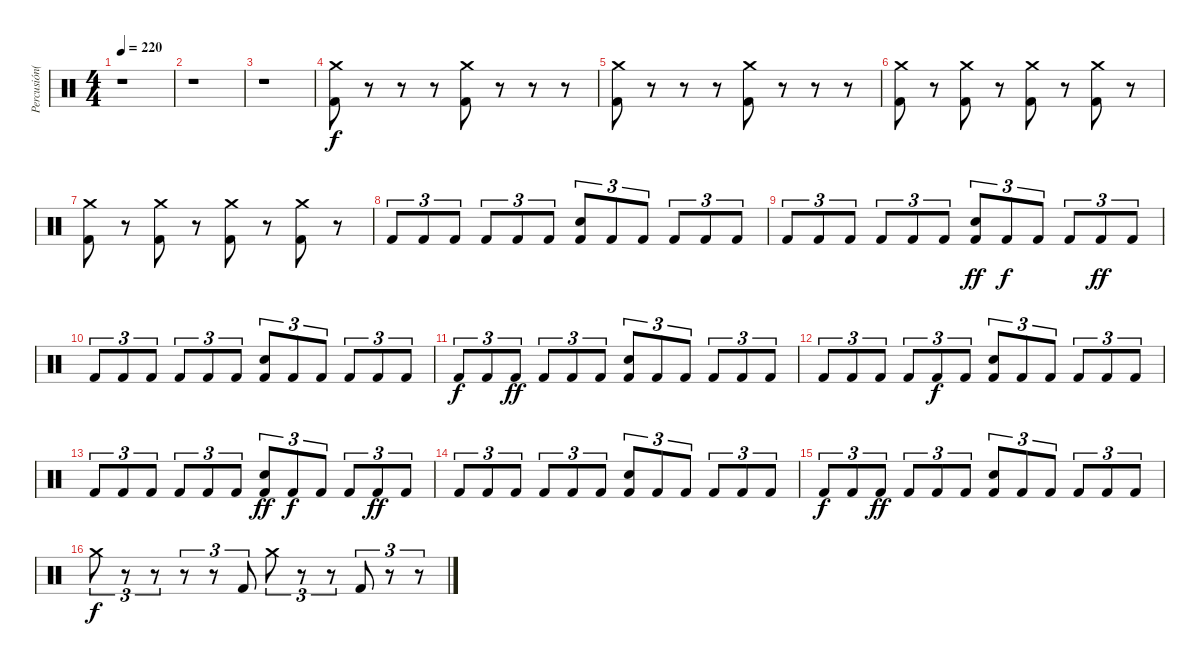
\track ("Percusión(Brett Powell)" "Percusión(") {instrument percussion}
\staff {score}
\articulation defaults
\ts (4 4)
\tempo 220
\clef neutral
\ks c
r.1{dy f} |
r.1 |
r.1 |
("Crash medium (hit)" "Kick (hit) 2").8 r.8 r.8 r.8 ("Crash medium (hit)" "Kick (hit) 2").8 r.8 r.8 r.8 |
("Crash medium (hit)" "Kick (hit) 2").8 r.8 r.8 r.8 ("Crash medium (hit)" "Kick (hit) 2").8 r.8 r.8 r.8 |
("Crash medium (hit)" "Kick (hit) 2").8 r.8 ("Crash medium (hit)" "Kick (hit) 2").8 r.8 ("Crash medium (hit)" "Kick (hit) 2").8 r.8 ("Crash medium (hit)" "Kick (hit) 2").8 r.8 |
("Crash medium (hit)" "Kick (hit) 2").8 r.8 ("Crash medium (hit)" "Kick (hit) 2").8 r.8 ("Crash medium (hit)" "Kick (hit) 2").8 r.8 ("Crash medium (hit)" "Kick (hit) 2").8 r.8 |
"Kick (hit) 2".8{tu (3 2)} "Kick (hit) 2".8{tu (3 2)} "Kick (hit) 2".8{tu (3 2)} "Kick (hit) 2".8{tu (3 2)} "Kick (hit) 2".8{tu (3 2)} "Kick (hit) 2".8{tu (3 2)} ("Electric Snare (hit)" "Kick (hit) 2").8{tu (3 2)} "Kick (hit) 2".8{tu (3 2)} "Kick (hit) 2".8{tu (3 2)} "Kick (hit) 2".8{tu (3 2)} "Kick (hit) 2".8{tu (3 2)} "Kick (hit) 2".8{tu (3 2)} |
"Kick (hit) 2".8{tu (3 2)} "Kick (hit) 2".8{tu (3 2)} "Kick (hit) 2".8{tu (3 2)} "Kick (hit) 2".8{tu (3 2)} "Kick (hit) 2".8{tu (3 2)} "Kick (hit) 2".8{tu (3 2)} ("Electric Snare (hit)" "Kick (hit) 2").8{tu (3 2) dy ff} "Kick (hit) 2".8{tu (3 2) dy f} "Kick (hit) 2".8{tu (3 2)} "Kick (hit) 2".8{tu (3 2)} "Kick (hit) 2".8{tu (3 2) dy ff} "Kick (hit) 2".8{tu (3 2)} |
"Kick (hit) 2".8{tu (3 2)} "Kick (hit) 2".8{tu (3 2)} "Kick (hit) 2".8{tu (3 2)} "Kick (hit) 2".8{tu (3 2)} "Kick (hit) 2".8{tu (3 2)} "Kick (hit) 2".8{tu (3 2)} ("Electric Snare (hit)" "Kick (hit) 2").8{tu (3 2)} "Kick (hit) 2".8{tu (3 2)} "Kick (hit) 2".8{tu (3 2)} "Kick (hit) 2".8{tu (3 2)} "Kick (hit) 2".8{tu (3 2)} "Kick (hit) 2".8{tu (3 2)} |
"Kick (hit) 2".8{tu (3 2) dy f} "Kick (hit) 2".8{tu (3 2)} "Kick (hit) 2".8{tu (3 2) dy ff} "Kick (hit) 2".8{tu (3 2)} "Kick (hit) 2".8{tu (3 2)} "Kick (hit) 2".8{tu (3 2)} ("Electric Snare (hit)" "Kick (hit) 2").8{tu (3 2)} "Kick (hit) 2".8{tu (3 2)} "Kick (hit) 2".8{tu (3 2)} "Kick (hit) 2".8{tu (3 2)} "Kick (hit) 2".8{tu (3 2)} "Kick (hit) 2".8{tu (3 2)} |
"Kick (hit) 2".8{tu (3 2)} "Kick (hit) 2".8{tu (3 2)} "Kick (hit) 2".8{tu (3 2)} "Kick (hit) 2".8{tu (3 2)} "Kick (hit) 2".8{tu (3 2) dy f} "Kick (hit) 2".8{tu (3 2)} ("Electric Snare (hit)" "Kick (hit) 2").8{tu (3 2)} "Kick (hit) 2".8{tu (3 2)} "Kick (hit) 2".8{tu (3 2)} "Kick (hit) 2".8{tu (3 2)} "Kick (hit) 2".8{tu (3 2)} "Kick (hit) 2".8{tu (3 2)} |
"Kick (hit) 2".8{tu (3 2)} "Kick (hit) 2".8{tu (3 2)} "Kick (hit) 2".8{tu (3 2)} "Kick (hit) 2".8{tu (3 2)} "Kick (hit) 2".8{tu (3 2)} "Kick (hit) 2".8{tu (3 2)} ("Electric Snare (hit)" "Kick (hit) 2").8{tu (3 2) dy ff} "Kick (hit) 2".8{tu (3 2) dy f} "Kick (hit) 2".8{tu (3 2)} "Kick (hit) 2".8{tu (3 2)} "Kick (hit) 2".8{tu (3 2) dy ff} "Kick (hit) 2".8{tu (3 2)} |
"Kick (hit) 2".8{tu (3 2)} "Kick (hit) 2".8{tu (3 2)} "Kick (hit) 2".8{tu (3 2)} "Kick (hit) 2".8{tu (3 2)} "Kick (hit) 2".8{tu (3 2)} "Kick (hit) 2".8{tu (3 2)} ("Electric Snare (hit)" "Kick (hit) 2").8{tu (3 2)} "Kick (hit) 2".8{tu (3 2)} "Kick (hit) 2".8{tu (3 2)} "Kick (hit) 2".8{tu (3 2)} "Kick (hit) 2".8{tu (3 2)} "Kick (hit) 2".8{tu (3 2)} |
"Kick (hit) 2".8{tu (3 2) dy f} "Kick (hit) 2".8{tu (3 2)} "Kick (hit) 2".8{tu (3 2) dy ff} "Kick (hit) 2".8{tu (3 2)} "Kick (hit) 2".8{tu (3 2)} "Kick (hit) 2".8{tu (3 2)} ("Electric Snare (hit)" "Kick (hit) 2").8{tu (3 2)} "Kick (hit) 2".8{tu (3 2)} "Kick (hit) 2".8{tu (3 2)} "Kick (hit) 2".8{tu (3 2)} "Kick (hit) 2".8{tu (3 2)} "Kick (hit) 2".8{tu (3 2)} |
"Crash medium (hit)".8{tu (3 2) dy f} r.8{tu (3 2)} r.8{tu (3 2)} r.8{tu (3 2)} r.8{tu (3 2)} "Kick (hit) 2".8{tu (3 2)} "Crash medium (hit)".8{tu (3 2)} r.8{tu (3 2)} r.8{tu (3 2)} "Kick (hit) 2".8{tu (3 2)} r.8{tu (3 2)} r.8{tu (3 2)}
